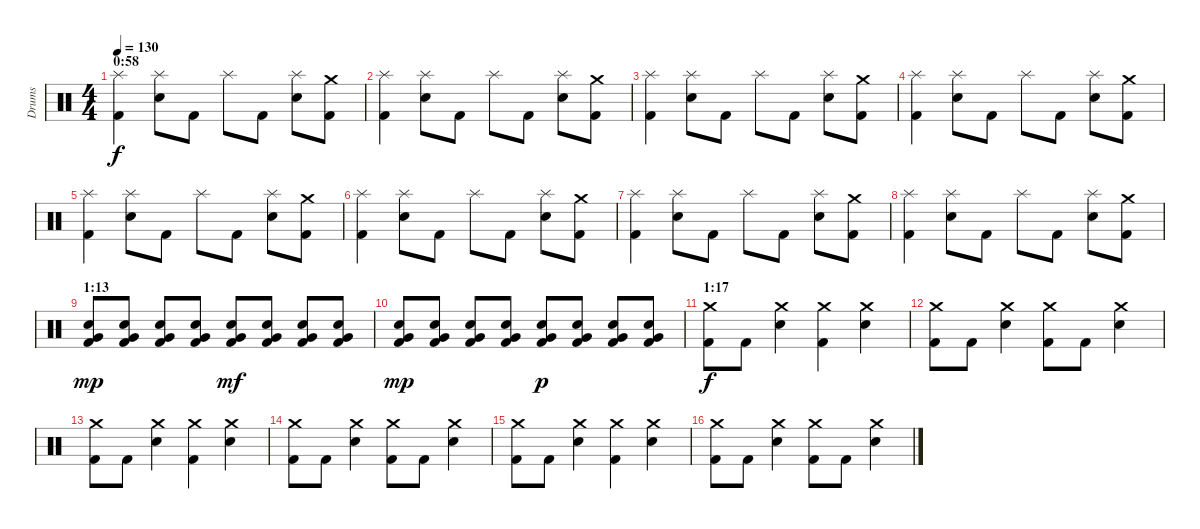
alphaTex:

\track ("Drums" "Drums") {instrument percussion}
\staff {score}
\articulation defaults
\ts (4 4)
\section ("" "0:58")
\tempo 130
\clef neutral
\ks c
("Splash (hit)" "Kick (hit) 2").4{dy f} ("Splash (hit)" "Snare (hit) 2").8 "Kick (hit) 2".8 "Splash (hit)".8 "Kick (hit) 2".8 ("Splash (hit)" "Snare (hit) 2").8 ("Crash medium (hit)" "Kick (hit) 2").8 |
("Splash (hit)" "Kick (hit) 2").4 ("Splash (hit)" "Snare (hit) 2").8 "Kick (hit) 2".8 "Splash (hit)".8 "Kick (hit) 2".8 ("Splash (hit)" "Snare (hit) 2").8 ("Crash medium (hit)" "Kick (hit) 2").8 |
("Splash (hit)" "Kick (hit) 2").4 ("Splash (hit)" "Snare (hit) 2").8 "Kick (hit) 2".8 "Splash (hit)".8 "Kick (hit) 2".8 ("Splash (hit)" "Snare (hit) 2").8 ("Crash medium (hit)" "Kick (hit) 2").8 |
("Splash (hit)" "Kick (hit) 2").4 ("Splash (hit)" "Snare (hit) 2").8 "Kick (hit) 2".8 "Splash (hit)".8 "Kick (hit) 2".8 ("Splash (hit)" "Snare (hit) 2").8 ("Crash medium (hit)" "Kick (hit) 2").8 |
("Splash (hit)" "Kick (hit) 2").4 ("Splash (hit)" "Snare (hit) 2").8 "Kick (hit) 2".8 "Splash (hit)".8 "Kick (hit) 2".8 ("Splash (hit)" "Snare (hit) 2").8 ("Crash medium (hit)" "Kick (hit) 2").8 |
("Splash (hit)" "Kick (hit) 2").4 ("Splash (hit)" "Snare (hit) 2").8 "Kick (hit) 2".8 "Splash (hit)".8 "Kick (hit) 2".8 ("Splash (hit)" "Snare (hit) 2").8 ("Crash medium (hit)" "Kick (hit) 2").8 |
("Splash (hit)" "Kick (hit) 2").4 ("Splash (hit)" "Snare (hit) 2").8 "Kick (hit) 2".8 "Splash (hit)".8 "Kick (hit) 2".8 ("Splash (hit)" "Snare (hit) 2").8 ("Crash medium (hit)" "Kick (hit) 2").8 |
("Splash (hit)" "Kick (hit) 2").4 ("Splash (hit)" "Snare (hit) 2").8 "Kick (hit) 2".8 "Splash (hit)".8 "Kick (hit) 2".8 ("Splash (hit)" "Snare (hit) 2").8 ("Crash medium (hit)" "Kick (hit) 2").8 |
\section ("" "1:13")
("Snare (hit) 2" "Very Low Tom (hit)" "Kick (hit) 2").8{dy mp} ("Snare (hit) 2" "Very Low Tom (hit)" "Kick (hit) 2").8 ("Snare (hit) 2" "Very Low Tom (hit)" "Kick (hit) 2").8 ("Snare (hit) 2" "Very Low Tom (hit)" "Kick (hit) 2").8 ("Snare (hit) 2" "Very Low Tom (hit)" "Kick (hit) 2").8{dy mf} ("Snare (hit) 2" "Very Low Tom (hit)" "Kick (hit) 2").8 ("Snare (hit) 2" "Very Low Tom (hit)" "Kick (hit) 2").8 ("Snare (hit) 2" "Very Low Tom (hit)" "Kick (hit) 2").8 |
("Snare (hit) 2" "Very Low Tom (hit)" "Kick (hit) 2").8{dy mp} ("Snare (hit) 2" "Very Low Tom (hit)" "Kick (hit) 2").8 ("Snare (hit) 2" "Very Low Tom (hit)" "Kick (hit) 2").8 ("Snare (hit) 2" "Very Low Tom (hit)" "Kick (hit) 2").8 ("Snare (hit) 2" "Very Low Tom (hit)" "Kick (hit) 2").8{dy p} ("Snare (hit) 2" "Very Low Tom (hit)" "Kick (hit) 2").8 ("Snare (hit) 2" "Very Low Tom (hit)" "Kick (hit) 2").8 ("Snare (hit) 2" "Very Low Tom (hit)" "Kick (hit) 2").8 |
\section ("" "1:17")
("Crash medium (hit)" "Kick (hit) 2").8{dy f} "Kick (hit) 2".8 ("Crash medium (hit)" "Snare (hit) 2").4 ("Crash medium (hit)" "Kick (hit) 2").4 ("Crash medium (hit)" "Snare (hit) 2").4 |
("Crash medium (hit)" "Kick (hit) 2").8 "Kick (hit) 2".8 ("Crash medium (hit)" "Snare (hit) 2").4 ("Crash medium (hit)" "Kick (hit) 2").8 "Kick (hit) 2".8 ("Crash medium (hit)" "Snare (hit) 2").4 |
("Crash medium (hit)" "Kick (hit) 2").8 "Kick (hit) 2".8 ("Crash medium (hit)" "Snare (hit) 2").4 ("Crash medium (hit)" "Kick (hit) 2").4 ("Crash medium (hit)" "Snare (hit) 2").4 |
("Crash medium (hit)" "Kick (hit) 2").8 "Kick (hit) 2".8 ("Crash medium (hit)" "Snare (hit) 2").4 ("Crash medium (hit)" "Kick (hit) 2").8 "Kick (hit) 2".8 ("Crash medium (hit)" "Snare (hit) 2").4 |
("Crash medium (hit)" "Kick (hit) 2").8 "Kick (hit) 2".8 ("Crash medium (hit)" "Snare (hit) 2").4 ("Crash medium (hit)" "Kick (hit) 2").4 ("Crash medium (hit)" "Snare (hit) 2").4 |
("Crash medium (hit)" "Kick (hit) 2").8 "Kick (hit) 2".8 ("Crash medium (hit)" "Snare (hit) 2").4 ("Crash medium (hit)" "Kick (hit) 2").8 "Kick (hit) 2".8 ("Crash medium (hit)" "Snare (hit) 2").4
